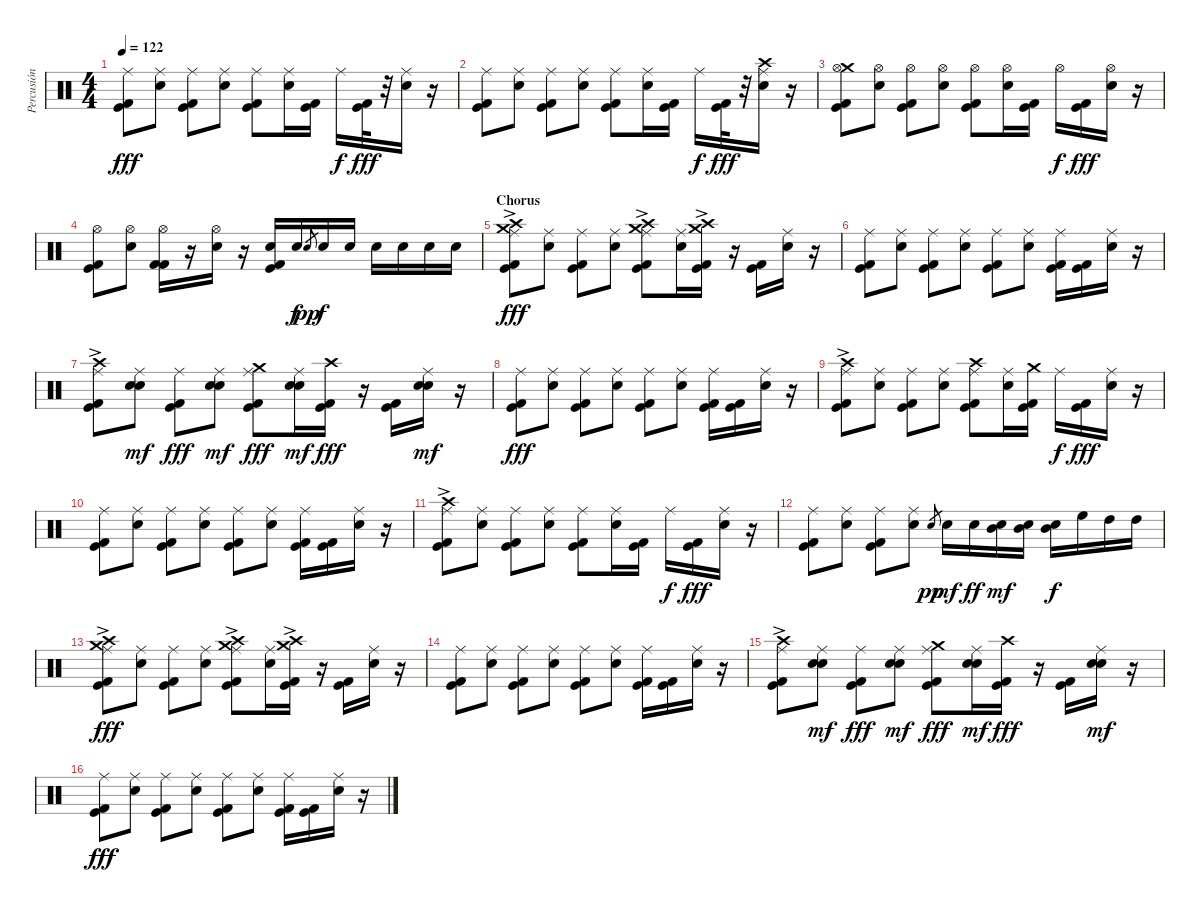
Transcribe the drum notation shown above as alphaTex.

\track ("Percusión" "Percusión") {instrument percussion}
\staff {score}
\articulation defaults
\ts (4 4)
\tempo 122
\clef neutral
\ks c
("Ride (middle)" "Kick (hit)" "Kick (hit) 2").8{dy fff} ("Ride (middle)" "Electric Snare (hit)").8 ("Ride (middle)" "Kick (hit)" "Kick (hit) 2").8 ("Ride (middle)" "Electric Snare (hit)").8 ("Ride (middle)" "Kick (hit)" "Kick (hit) 2").8 ("Ride (middle)" "Electric Snare (hit)").16 ("Kick (hit)" "Kick (hit) 2").16 "Ride (middle)".16{dy f} ("Kick (hit)" "Kick (hit) 2").32{dy fff} r.32 ("Ride (middle)" "Electric Snare (hit)").16 r.16 |
("Ride (middle)" "Kick (hit)" "Kick (hit) 2").8 ("Ride (middle)" "Electric Snare (hit)").8 ("Ride (middle)" "Kick (hit)" "Kick (hit) 2").8 ("Ride (middle)" "Electric Snare (hit)").8 ("Ride (middle)" "Kick (hit)" "Kick (hit) 2").8 ("Ride (middle)" "Electric Snare (hit)").16 ("Kick (hit)" "Kick (hit) 2").16 "Ride (middle)".16{dy f} ("Kick (hit)" "Kick (hit) 2").32{dy fff} r.32 ("Crash high (hit)" "Ride (middle)" "Electric Snare (hit)").16 r.16 |
("Crash medium (hit)" "Hi-Hat (open)" "Kick (hit)" "Kick (hit) 2").8 ("Hi-Hat (open)" "Electric Snare (hit)").8 ("Hi-Hat (open)" "Kick (hit)" "Kick (hit) 2").8 ("Hi-Hat (open)" "Electric Snare (hit)").8 ("Hi-Hat (open)" "Kick (hit)" "Kick (hit) 2").8 ("Hi-Hat (open)" "Electric Snare (hit)").16 ("Kick (hit)" "Kick (hit) 2").16 "Hi-Hat (open)".16{dy f} ("Kick (hit)" "Kick (hit) 2").16{dy fff} ("Hi-Hat (open)" "Electric Snare (hit)").16 r.16 |
("Hi-Hat (open)" "Kick (hit)" "Kick (hit) 2").8 ("Hi-Hat (open)" "Electric Snare (hit)").8 ("Hi-Hat (open)" "Kick (hit) 2" "Kick (hit) 2").16 r.16 ("Hi-Hat (open)" "Electric Snare (hit)").16 r.16 ("Electric Snare (hit)" "Kick (hit)" "Kick (hit) 2").16 "Electric Snare (hit)".16{dy f} "Electric Snare (hit)".8{gr dy pp} "Electric Snare (hit)".16{dy f} "Electric Snare (hit)".16 "Electric Snare (hit)".16 "Electric Snare (hit)".16 "Electric Snare (hit)".16 "Electric Snare (hit)".16 |
\section ("" "Chorus")
("Crash medium (hit)" "Crash high (hit)"{ac} "Ride (middle)" "Kick (hit)" "Kick (hit) 2").8{dy fff} ("Ride (middle)" "Electric Snare (hit)").8 ("Ride (middle)" "Kick (hit)" "Kick (hit) 2").8 ("Ride (middle)" "Electric Snare (hit)").8 ("Crash high (hit)"{ac} "Crash medium (hit)" "Ride (middle)" "Kick (hit)" "Kick (hit) 2").8 ("Ride (middle)" "Electric Snare (hit)").16 ("Crash medium (hit)"{ac} "Crash high (hit)" "Kick (hit)" "Kick (hit) 2").16 r.16 ("Kick (hit)" "Kick (hit) 2").16 ("Ride (middle)" "Electric Snare (hit)").16 r.16 |
("Ride (middle)" "Kick (hit)" "Kick (hit) 2").8 ("Ride (middle)" "Electric Snare (hit)").8 ("Ride (middle)" "Kick (hit)" "Kick (hit) 2").8 ("Ride (middle)" "Electric Snare (hit)").8 ("Ride (middle)" "Kick (hit)" "Kick (hit) 2").8 ("Ride (middle)" "Electric Snare (hit)").8 ("Ride (middle)" "Kick (hit)" "Kick (hit) 2").16 ("Kick (hit)" "Kick (hit) 2").16 ("Ride (middle)" "Electric Snare (hit)").16 r.16 |
("Crash high (hit)"{ac} "Ride (middle)" "Kick (hit)" "Kick (hit) 2").8 ("Ride (middle)" "Electric Snare (hit)" "Snare (hit) 2").8{dy mf} ("Ride (middle)" "Kick (hit)" "Kick (hit) 2").8{dy fff} ("Ride (middle)" "Electric Snare (hit)" "Snare (hit) 2").8{dy mf} ("Crash medium (hit)" "Ride (middle)" "Kick (hit)" "Kick (hit) 2").8{dy fff} ("Ride (middle)" "Electric Snare (hit)" "Snare (hit) 2").16{dy mf} ("Crash high (hit)" "Kick (hit)" "Kick (hit) 2").16{dy fff} r.16 ("Kick (hit)" "Kick (hit) 2").16 ("Ride (middle)" "Electric Snare (hit)" "Snare (hit) 2").16{dy mf} r.16 |
("Ride (middle)" "Kick (hit)" "Kick (hit) 2").8{dy fff} ("Ride (middle)" "Electric Snare (hit)").8 ("Ride (middle)" "Kick (hit)" "Kick (hit) 2").8 ("Ride (middle)" "Electric Snare (hit)").8 ("Ride (middle)" "Kick (hit)" "Kick (hit) 2").8 ("Ride (middle)" "Electric Snare (hit)").8 ("Ride (middle)" "Kick (hit)" "Kick (hit) 2").16 ("Kick (hit)" "Kick (hit) 2").16 ("Ride (middle)" "Electric Snare (hit)").16 r.16 |
("Crash high (hit)"{ac} "Ride (middle)" "Kick (hit)" "Kick (hit) 2").8 ("Ride (middle)" "Electric Snare (hit)").8 ("Ride (middle)" "Kick (hit)" "Kick (hit) 2").8 ("Ride (middle)" "Electric Snare (hit)").8 ("Crash high (hit)" "Ride (middle)" "Kick (hit)" "Kick (hit) 2").8 ("Ride (middle)" "Electric Snare (hit)").16 ("Crash medium (hit)" "Kick (hit)" "Kick (hit) 2").16 "Ride (middle)".16{dy f} ("Kick (hit)" "Kick (hit) 2").16{dy fff} ("Ride (middle)" "Electric Snare (hit)").16 r.16 |
("Ride (middle)" "Kick (hit)" "Kick (hit) 2").8 ("Ride (middle)" "Electric Snare (hit)").8 ("Ride (middle)" "Kick (hit)" "Kick (hit) 2").8 ("Ride (middle)" "Electric Snare (hit)").8 ("Ride (middle)" "Kick (hit)" "Kick (hit) 2").8 ("Ride (middle)" "Electric Snare (hit)").8 ("Ride (middle)" "Kick (hit)" "Kick (hit) 2").16 ("Kick (hit)" "Kick (hit) 2").16 ("Ride (middle)" "Electric Snare (hit)").16 r.16 |
("Crash high (hit)"{ac} "Ride (middle)" "Kick (hit)" "Kick (hit) 2").8 ("Ride (middle)" "Electric Snare (hit)").8 ("Ride (middle)" "Kick (hit)" "Kick (hit) 2").8 ("Ride (middle)" "Electric Snare (hit)").8 ("Ride (middle)" "Kick (hit)" "Kick (hit) 2").8 ("Ride (middle)" "Electric Snare (hit)").16 ("Kick (hit)" "Kick (hit) 2").16 "Ride (middle)".16{dy f} ("Kick (hit)" "Kick (hit) 2").16{dy fff} ("Ride (middle)" "Electric Snare (hit)").16 r.16 |
("Ride (middle)" "Kick (hit)" "Kick (hit) 2").8 ("Ride (middle)" "Electric Snare (hit)").8 ("Ride (middle)" "Kick (hit)" "Kick (hit) 2").8 ("Ride (middle)" "Electric Snare (hit)").8 "Electric Snare (hit)".8{gr dy pp} "Electric Snare (hit)".16{dy mf} "Electric Snare (hit)".16{dy ff} ("Mid Tom (hit)" "Electric Snare (hit)").16{dy mf} ("Mid Tom (hit)" "Electric Snare (hit)").16 ("Mid Tom (hit)" "Electric Snare (hit)").16{dy f} "High Floor Tom (hit)".16 "High Tom (hit)".16 "High Tom (hit)".16 |
("Crash medium (hit)" "Crash high (hit)"{ac} "Ride (middle)" "Kick (hit)" "Kick (hit) 2").8{dy fff} ("Ride (middle)" "Electric Snare (hit)").8 ("Ride (middle)" "Kick (hit)" "Kick (hit) 2").8 ("Ride (middle)" "Electric Snare (hit)").8 ("Crash high (hit)"{ac} "Crash medium (hit)" "Ride (middle)" "Kick (hit)" "Kick (hit) 2").8 ("Ride (middle)" "Electric Snare (hit)").16 ("Crash medium (hit)"{ac} "Crash high (hit)" "Kick (hit)" "Kick (hit) 2").16 r.16 ("Kick (hit)" "Kick (hit) 2").16 ("Ride (middle)" "Electric Snare (hit)").16 r.16 |
("Ride (middle)" "Kick (hit)" "Kick (hit) 2").8 ("Ride (middle)" "Electric Snare (hit)").8 ("Ride (middle)" "Kick (hit)" "Kick (hit) 2").8 ("Ride (middle)" "Electric Snare (hit)").8 ("Ride (middle)" "Kick (hit)" "Kick (hit) 2").8 ("Ride (middle)" "Electric Snare (hit)").8 ("Ride (middle)" "Kick (hit)" "Kick (hit) 2").16 ("Kick (hit)" "Kick (hit) 2").16 ("Ride (middle)" "Electric Snare (hit)").16 r.16 |
("Crash high (hit)"{ac} "Ride (middle)" "Kick (hit)" "Kick (hit) 2").8 ("Ride (middle)" "Electric Snare (hit)" "Snare (hit) 2").8{dy mf} ("Ride (middle)" "Kick (hit)" "Kick (hit) 2").8{dy fff} ("Ride (middle)" "Electric Snare (hit)" "Snare (hit) 2").8{dy mf} ("Crash medium (hit)" "Ride (middle)" "Kick (hit)" "Kick (hit) 2").8{dy fff} ("Ride (middle)" "Electric Snare (hit)" "Snare (hit) 2").16{dy mf} ("Crash high (hit)" "Kick (hit)" "Kick (hit) 2").16{dy fff} r.16 ("Kick (hit)" "Kick (hit) 2").16 ("Ride (middle)" "Electric Snare (hit)" "Snare (hit) 2").16{dy mf} r.16 |
("Ride (middle)" "Kick (hit)" "Kick (hit) 2").8{dy fff} ("Ride (middle)" "Electric Snare (hit)").8 ("Ride (middle)" "Kick (hit)" "Kick (hit) 2").8 ("Ride (middle)" "Electric Snare (hit)").8 ("Ride (middle)" "Kick (hit)" "Kick (hit) 2").8 ("Ride (middle)" "Electric Snare (hit)").8 ("Ride (middle)" "Kick (hit)" "Kick (hit) 2").16 ("Kick (hit)" "Kick (hit) 2").16 ("Ride (middle)" "Electric Snare (hit)").16 r.16
